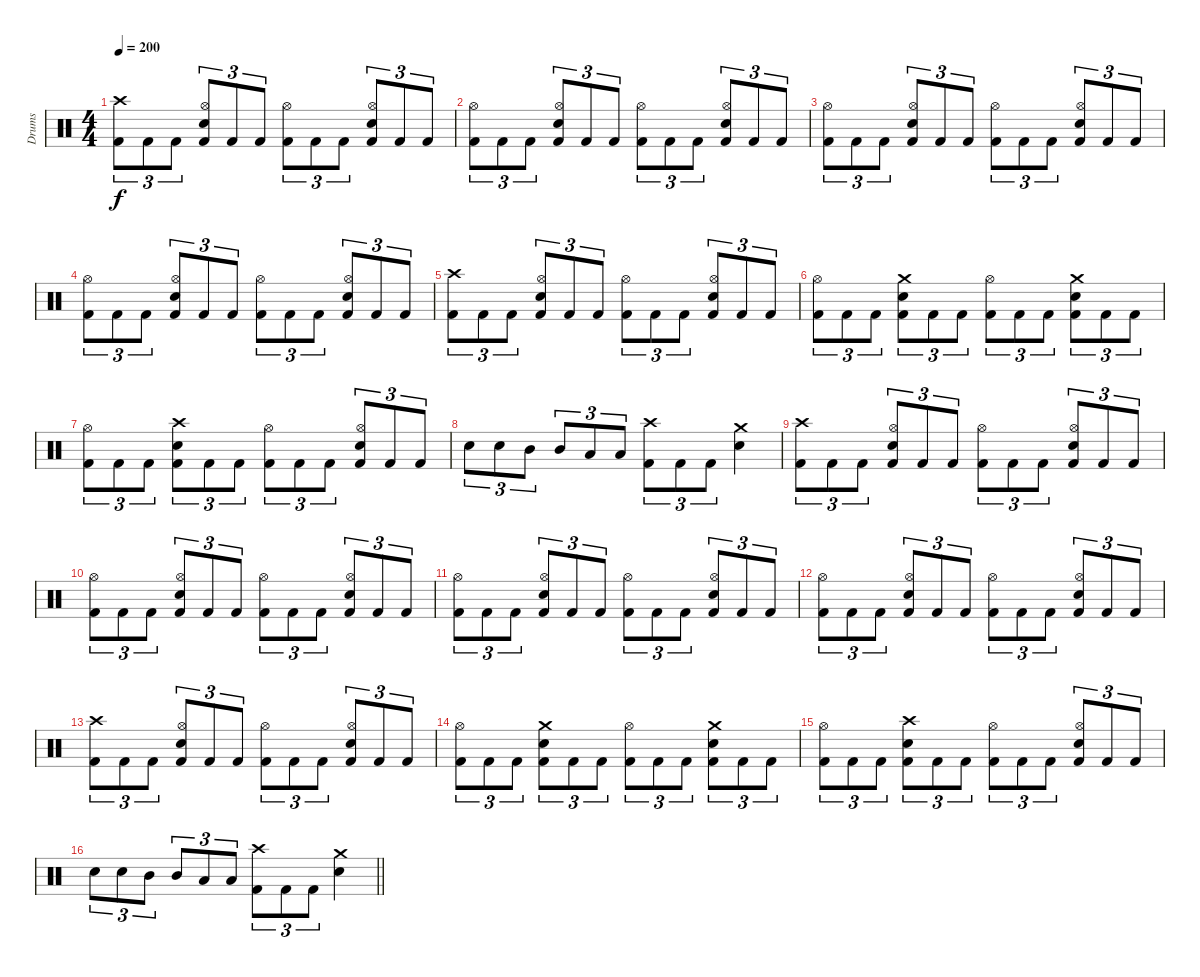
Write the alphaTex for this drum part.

\track ("Drums" "Drums") {instrument percussion}
\staff {score}
\articulation defaults
\ts (4 4)
\section ("" "")
\tempo 200
\clef neutral
\ks c
("Crash high (hit)" "Kick (hit) 2").8{tu (3 2) dy f} "Kick (hit) 2".8{tu (3 2)} "Kick (hit) 2".8{tu (3 2)} ("Hi-Hat (open)" "Snare (hit) 2" "Kick (hit) 2").8{tu (3 2)} "Kick (hit) 2".8{tu (3 2)} "Kick (hit) 2".8{tu (3 2)} ("Hi-Hat (open)" "Kick (hit) 2").8{tu (3 2)} "Kick (hit) 2".8{tu (3 2)} "Kick (hit) 2".8{tu (3 2)} ("Hi-Hat (open)" "Snare (hit) 2" "Kick (hit) 2").8{tu (3 2)} "Kick (hit) 2".8{tu (3 2)} "Kick (hit) 2".8{tu (3 2)} |
("Hi-Hat (open)" "Kick (hit) 2").8{tu (3 2)} "Kick (hit) 2".8{tu (3 2)} "Kick (hit) 2".8{tu (3 2)} ("Hi-Hat (open)" "Snare (hit) 2" "Kick (hit) 2").8{tu (3 2)} "Kick (hit) 2".8{tu (3 2)} "Kick (hit) 2".8{tu (3 2)} ("Hi-Hat (open)" "Kick (hit) 2").8{tu (3 2)} "Kick (hit) 2".8{tu (3 2)} "Kick (hit) 2".8{tu (3 2)} ("Hi-Hat (open)" "Snare (hit) 2" "Kick (hit) 2").8{tu (3 2)} "Kick (hit) 2".8{tu (3 2)} "Kick (hit) 2".8{tu (3 2)} |
("Hi-Hat (open)" "Kick (hit) 2").8{tu (3 2)} "Kick (hit) 2".8{tu (3 2)} "Kick (hit) 2".8{tu (3 2)} ("Hi-Hat (open)" "Snare (hit) 2" "Kick (hit) 2").8{tu (3 2)} "Kick (hit) 2".8{tu (3 2)} "Kick (hit) 2".8{tu (3 2)} ("Hi-Hat (open)" "Kick (hit) 2").8{tu (3 2)} "Kick (hit) 2".8{tu (3 2)} "Kick (hit) 2".8{tu (3 2)} ("Hi-Hat (open)" "Snare (hit) 2" "Kick (hit) 2").8{tu (3 2)} "Kick (hit) 2".8{tu (3 2)} "Kick (hit) 2".8{tu (3 2)} |
("Hi-Hat (open)" "Kick (hit) 2").8{tu (3 2)} "Kick (hit) 2".8{tu (3 2)} "Kick (hit) 2".8{tu (3 2)} ("Hi-Hat (open)" "Snare (hit) 2" "Kick (hit) 2").8{tu (3 2)} "Kick (hit) 2".8{tu (3 2)} "Kick (hit) 2".8{tu (3 2)} ("Hi-Hat (open)" "Kick (hit) 2").8{tu (3 2)} "Kick (hit) 2".8{tu (3 2)} "Kick (hit) 2".8{tu (3 2)} ("Hi-Hat (open)" "Snare (hit) 2" "Kick (hit) 2").8{tu (3 2)} "Kick (hit) 2".8{tu (3 2)} "Kick (hit) 2".8{tu (3 2)} |
("Crash high (hit)" "Kick (hit) 2").8{tu (3 2)} "Kick (hit) 2".8{tu (3 2)} "Kick (hit) 2".8{tu (3 2)} ("Hi-Hat (open)" "Snare (hit) 2" "Kick (hit) 2").8{tu (3 2)} "Kick (hit) 2".8{tu (3 2)} "Kick (hit) 2".8{tu (3 2)} ("Hi-Hat (open)" "Kick (hit) 2").8{tu (3 2)} "Kick (hit) 2".8{tu (3 2)} "Kick (hit) 2".8{tu (3 2)} ("Hi-Hat (open)" "Snare (hit) 2" "Kick (hit) 2").8{tu (3 2)} "Kick (hit) 2".8{tu (3 2)} "Kick (hit) 2".8{tu (3 2)} |
("Hi-Hat (open)" "Kick (hit) 2").8{tu (3 2)} "Kick (hit) 2".8{tu (3 2)} "Kick (hit) 2".8{tu (3 2)} ("Crash medium (hit)" "Snare (hit) 2" "Kick (hit) 2").8{tu (3 2)} "Kick (hit) 2".8{tu (3 2)} "Kick (hit) 2".8{tu (3 2)} ("Hi-Hat (open)" "Kick (hit) 2").8{tu (3 2)} "Kick (hit) 2".8{tu (3 2)} "Kick (hit) 2".8{tu (3 2)} ("Crash medium (hit)" "Snare (hit) 2" "Kick (hit) 2").8{tu (3 2)} "Kick (hit) 2".8{tu (3 2)} "Kick (hit) 2".8{tu (3 2)} |
("Hi-Hat (open)" "Kick (hit) 2").8{tu (3 2)} "Kick (hit) 2".8{tu (3 2)} "Kick (hit) 2".8{tu (3 2)} ("Crash high (hit)" "Snare (hit) 2" "Kick (hit) 2").8{tu (3 2)} "Kick (hit) 2".8{tu (3 2)} "Kick (hit) 2".8{tu (3 2)} ("Hi-Hat (open)" "Kick (hit) 2").8{tu (3 2)} "Kick (hit) 2".8{tu (3 2)} "Kick (hit) 2".8{tu (3 2)} ("Hi-Hat (open)" "Snare (hit) 2" "Kick (hit) 2").8{tu (3 2)} "Kick (hit) 2".8{tu (3 2)} "Kick (hit) 2".8{tu (3 2)} |
"Snare (hit) 2".8{tu (3 2)} "Snare (hit) 2".8{tu (3 2)} "Mid Tom (hit)".8{tu (3 2)} "Mid Tom (hit)".8{tu (3 2)} "Low Tom (hit)".8{tu (3 2)} "Low Tom (hit)".8{tu (3 2)} ("Crash high (hit)" "Kick (hit) 2").8{tu (3 2)} "Kick (hit) 2".8{tu (3 2)} "Kick (hit) 2".8{tu (3 2)} ("Crash medium (hit)" "Snare (hit) 2").4 |
("Crash high (hit)" "Kick (hit) 2").8{tu (3 2)} "Kick (hit) 2".8{tu (3 2)} "Kick (hit) 2".8{tu (3 2)} ("Hi-Hat (open)" "Snare (hit) 2" "Kick (hit) 2").8{tu (3 2)} "Kick (hit) 2".8{tu (3 2)} "Kick (hit) 2".8{tu (3 2)} ("Hi-Hat (open)" "Kick (hit) 2").8{tu (3 2)} "Kick (hit) 2".8{tu (3 2)} "Kick (hit) 2".8{tu (3 2)} ("Hi-Hat (open)" "Snare (hit) 2" "Kick (hit) 2").8{tu (3 2)} "Kick (hit) 2".8{tu (3 2)} "Kick (hit) 2".8{tu (3 2)} |
("Hi-Hat (open)" "Kick (hit) 2").8{tu (3 2)} "Kick (hit) 2".8{tu (3 2)} "Kick (hit) 2".8{tu (3 2)} ("Hi-Hat (open)" "Snare (hit) 2" "Kick (hit) 2").8{tu (3 2)} "Kick (hit) 2".8{tu (3 2)} "Kick (hit) 2".8{tu (3 2)} ("Hi-Hat (open)" "Kick (hit) 2").8{tu (3 2)} "Kick (hit) 2".8{tu (3 2)} "Kick (hit) 2".8{tu (3 2)} ("Hi-Hat (open)" "Snare (hit) 2" "Kick (hit) 2").8{tu (3 2)} "Kick (hit) 2".8{tu (3 2)} "Kick (hit) 2".8{tu (3 2)} |
("Hi-Hat (open)" "Kick (hit) 2").8{tu (3 2)} "Kick (hit) 2".8{tu (3 2)} "Kick (hit) 2".8{tu (3 2)} ("Hi-Hat (open)" "Snare (hit) 2" "Kick (hit) 2").8{tu (3 2)} "Kick (hit) 2".8{tu (3 2)} "Kick (hit) 2".8{tu (3 2)} ("Hi-Hat (open)" "Kick (hit) 2").8{tu (3 2)} "Kick (hit) 2".8{tu (3 2)} "Kick (hit) 2".8{tu (3 2)} ("Hi-Hat (open)" "Snare (hit) 2" "Kick (hit) 2").8{tu (3 2)} "Kick (hit) 2".8{tu (3 2)} "Kick (hit) 2".8{tu (3 2)} |
("Hi-Hat (open)" "Kick (hit) 2").8{tu (3 2)} "Kick (hit) 2".8{tu (3 2)} "Kick (hit) 2".8{tu (3 2)} ("Hi-Hat (open)" "Snare (hit) 2" "Kick (hit) 2").8{tu (3 2)} "Kick (hit) 2".8{tu (3 2)} "Kick (hit) 2".8{tu (3 2)} ("Hi-Hat (open)" "Kick (hit) 2").8{tu (3 2)} "Kick (hit) 2".8{tu (3 2)} "Kick (hit) 2".8{tu (3 2)} ("Hi-Hat (open)" "Snare (hit) 2" "Kick (hit) 2").8{tu (3 2)} "Kick (hit) 2".8{tu (3 2)} "Kick (hit) 2".8{tu (3 2)} |
("Crash high (hit)" "Kick (hit) 2").8{tu (3 2)} "Kick (hit) 2".8{tu (3 2)} "Kick (hit) 2".8{tu (3 2)} ("Hi-Hat (open)" "Snare (hit) 2" "Kick (hit) 2").8{tu (3 2)} "Kick (hit) 2".8{tu (3 2)} "Kick (hit) 2".8{tu (3 2)} ("Hi-Hat (open)" "Kick (hit) 2").8{tu (3 2)} "Kick (hit) 2".8{tu (3 2)} "Kick (hit) 2".8{tu (3 2)} ("Hi-Hat (open)" "Snare (hit) 2" "Kick (hit) 2").8{tu (3 2)} "Kick (hit) 2".8{tu (3 2)} "Kick (hit) 2".8{tu (3 2)} |
("Hi-Hat (open)" "Kick (hit) 2").8{tu (3 2)} "Kick (hit) 2".8{tu (3 2)} "Kick (hit) 2".8{tu (3 2)} ("Crash medium (hit)" "Snare (hit) 2" "Kick (hit) 2").8{tu (3 2)} "Kick (hit) 2".8{tu (3 2)} "Kick (hit) 2".8{tu (3 2)} ("Hi-Hat (open)" "Kick (hit) 2").8{tu (3 2)} "Kick (hit) 2".8{tu (3 2)} "Kick (hit) 2".8{tu (3 2)} ("Crash medium (hit)" "Snare (hit) 2" "Kick (hit) 2").8{tu (3 2)} "Kick (hit) 2".8{tu (3 2)} "Kick (hit) 2".8{tu (3 2)} |
("Hi-Hat (open)" "Kick (hit) 2").8{tu (3 2)} "Kick (hit) 2".8{tu (3 2)} "Kick (hit) 2".8{tu (3 2)} ("Crash high (hit)" "Snare (hit) 2" "Kick (hit) 2").8{tu (3 2)} "Kick (hit) 2".8{tu (3 2)} "Kick (hit) 2".8{tu (3 2)} ("Hi-Hat (open)" "Kick (hit) 2").8{tu (3 2)} "Kick (hit) 2".8{tu (3 2)} "Kick (hit) 2".8{tu (3 2)} ("Hi-Hat (open)" "Snare (hit) 2" "Kick (hit) 2").8{tu (3 2)} "Kick (hit) 2".8{tu (3 2)} "Kick (hit) 2".8{tu (3 2)} |
\barLineRight lightlight "Snare (hit) 2".8{tu (3 2)} "Snare (hit) 2".8{tu (3 2)} "Mid Tom (hit)".8{tu (3 2)} "Mid Tom (hit)".8{tu (3 2)} "Low Tom (hit)".8{tu (3 2)} "Low Tom (hit)".8{tu (3 2)}
("Crash high (hit)" "Kick (hit) 2").8{tu (3 2)} "Kick (hit) 2".8{tu (3 2)} "Kick (hit) 2".8{tu (3 2)} ("Crash medium (hit)" "Snare (hit) 2").4
